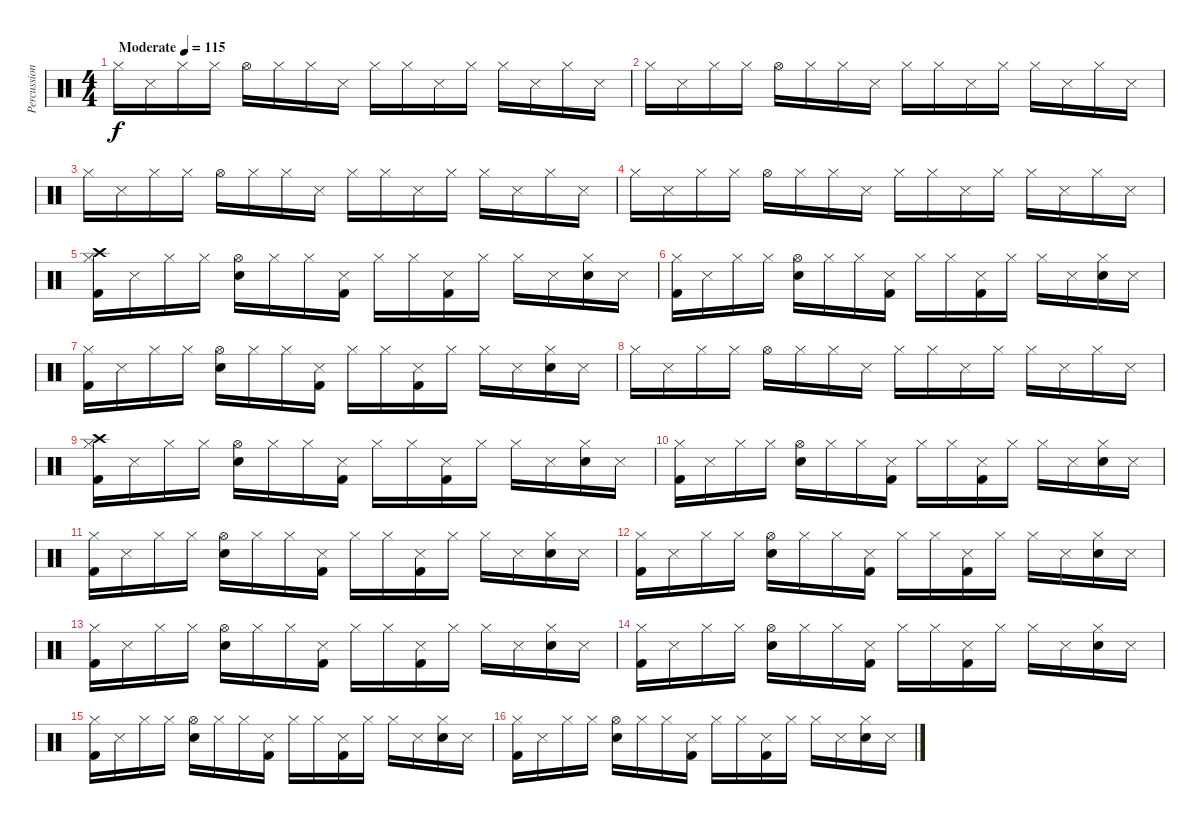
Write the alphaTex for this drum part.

\track ("Percussion (TR808 Kit)" "Percussion") {instrument percussion}
\staff {score}
\articulation defaults
\ts (4 4)
\tempo (115 "Moderate")
\clef neutral
\ks c "Hi-Hat (closed)".16{dy f} "Snare (side stick) 3".16 "Hi-Hat (closed)".16 "Hi-Hat (closed)".16 "Hi-Hat (open)".16 "Hi-Hat (closed)".16 "Hi-Hat (closed)".16 "Snare (side stick) 3".16 "Hi-Hat (closed)".16 "Hi-Hat (closed)".16 "Snare (side stick) 3".16 "Hi-Hat (closed)".16 "Hi-Hat (closed)".16 "Snare (side stick) 3".16 "Hi-Hat (closed)".16 "Snare (side stick) 3".16
|
"Hi-Hat (closed)".16 "Snare (side stick) 3".16 "Hi-Hat (closed)".16 "Hi-Hat (closed)".16 "Hi-Hat (open)".16 "Hi-Hat (closed)".16 "Hi-Hat (closed)".16 "Snare (side stick) 3".16 "Hi-Hat (closed)".16 "Hi-Hat (closed)".16 "Snare (side stick) 3".16 "Hi-Hat (closed)".16 "Hi-Hat (closed)".16 "Snare (side stick) 3".16 "Hi-Hat (closed)".16 "Snare (side stick) 3".16 |
"Hi-Hat (closed)".16 "Snare (side stick) 3".16 "Hi-Hat (closed)".16 "Hi-Hat (closed)".16 "Hi-Hat (open)".16 "Hi-Hat (closed)".16 "Hi-Hat (closed)".16 "Snare (side stick) 3".16 "Hi-Hat (closed)".16 "Hi-Hat (closed)".16 "Snare (side stick) 3".16 "Hi-Hat (closed)".16 "Hi-Hat (closed)".16 "Snare (side stick) 3".16 "Hi-Hat (closed)".16 "Snare (side stick) 3".16 |
"Hi-Hat (closed)".16 "Snare (side stick) 3".16 "Hi-Hat (closed)".16 "Hi-Hat (closed)".16 "Hi-Hat (open)".16 "Hi-Hat (closed)".16 "Hi-Hat (closed)".16 "Snare (side stick) 3".16 "Hi-Hat (closed)".16 "Hi-Hat (closed)".16 "Snare (side stick) 3".16 "Hi-Hat (closed)".16 "Hi-Hat (closed)".16 "Snare (side stick) 3".16 "Hi-Hat (closed)".16 "Snare (side stick) 3".16 |
("Hi-Hat (closed)" "Kick (hit) 2" "Crash high (hit)").16 "Snare (side stick) 3".16 "Hi-Hat (closed)".16 "Hi-Hat (closed)".16 ("Hi-Hat (open)" "Snare (hit) 2").16 "Hi-Hat (closed)".16 "Hi-Hat (closed)".16 ("Snare (side stick) 3" "Kick (hit) 2").16 "Hi-Hat (closed)".16 "Hi-Hat (closed)".16 ("Snare (side stick) 3" "Kick (hit) 2").16 "Hi-Hat (closed)".16 "Hi-Hat (closed)".16 "Snare (side stick) 3".16 ("Hi-Hat (closed)" "Snare (hit) 2").16 "Snare (side stick) 3".16 |
("Hi-Hat (closed)" "Kick (hit) 2").16 "Snare (side stick) 3".16 "Hi-Hat (closed)".16 "Hi-Hat (closed)".16 ("Hi-Hat (open)" "Snare (hit) 2").16 "Hi-Hat (closed)".16 "Hi-Hat (closed)".16 ("Snare (side stick) 3" "Kick (hit) 2").16 "Hi-Hat (closed)".16 "Hi-Hat (closed)".16 ("Snare (side stick) 3" "Kick (hit) 2").16 "Hi-Hat (closed)".16 "Hi-Hat (closed)".16 "Snare (side stick) 3".16 ("Hi-Hat (closed)" "Snare (hit) 2").16 "Snare (side stick) 3".16 |
("Hi-Hat (closed)" "Kick (hit) 2").16 "Snare (side stick) 3".16 "Hi-Hat (closed)".16 "Hi-Hat (closed)".16 ("Hi-Hat (open)" "Snare (hit) 2").16 "Hi-Hat (closed)".16 "Hi-Hat (closed)".16 ("Snare (side stick) 3" "Kick (hit) 2").16 "Hi-Hat (closed)".16 "Hi-Hat (closed)".16 ("Snare (side stick) 3" "Kick (hit) 2").16 "Hi-Hat (closed)".16 "Hi-Hat (closed)".16 "Snare (side stick) 3".16 ("Hi-Hat (closed)" "Snare (hit) 2").16 "Snare (side stick) 3".16 |
"Hi-Hat (closed)".16 "Snare (side stick) 3".16 "Hi-Hat (closed)".16 "Hi-Hat (closed)".16 "Hi-Hat (open)".16 "Hi-Hat (closed)".16 "Hi-Hat (closed)".16 "Snare (side stick) 3".16 "Hi-Hat (closed)".16 "Hi-Hat (closed)".16 "Snare (side stick) 3".16 "Hi-Hat (closed)".16 "Hi-Hat (closed)".16 "Snare (side stick) 3".16 "Hi-Hat (closed)".16 "Snare (side stick) 3".16 |
("Hi-Hat (closed)" "Kick (hit) 2" "Crash high (hit)").16 "Snare (side stick) 3".16 "Hi-Hat (closed)".16 "Hi-Hat (closed)".16 ("Hi-Hat (open)" "Snare (hit) 2").16 "Hi-Hat (closed)".16 "Hi-Hat (closed)".16 ("Snare (side stick) 3" "Kick (hit) 2").16 "Hi-Hat (closed)".16 "Hi-Hat (closed)".16 ("Snare (side stick) 3" "Kick (hit) 2").16 "Hi-Hat (closed)".16 "Hi-Hat (closed)".16 "Snare (side stick) 3".16 ("Hi-Hat (closed)" "Snare (hit) 2").16 "Snare (side stick) 3".16 |
("Hi-Hat (closed)" "Kick (hit) 2").16 "Snare (side stick) 3".16 "Hi-Hat (closed)".16 "Hi-Hat (closed)".16 ("Hi-Hat (open)" "Snare (hit) 2").16 "Hi-Hat (closed)".16 "Hi-Hat (closed)".16 ("Snare (side stick) 3" "Kick (hit) 2").16 "Hi-Hat (closed)".16 "Hi-Hat (closed)".16 ("Snare (side stick) 3" "Kick (hit) 2").16 "Hi-Hat (closed)".16 "Hi-Hat (closed)".16 "Snare (side stick) 3".16 ("Hi-Hat (closed)" "Snare (hit) 2").16 "Snare (side stick) 3".16 |
("Hi-Hat (closed)" "Kick (hit) 2").16 "Snare (side stick) 3".16 "Hi-Hat (closed)".16 "Hi-Hat (closed)".16 ("Hi-Hat (open)" "Snare (hit) 2").16 "Hi-Hat (closed)".16 "Hi-Hat (closed)".16 ("Snare (side stick) 3" "Kick (hit) 2").16 "Hi-Hat (closed)".16 "Hi-Hat (closed)".16 ("Snare (side stick) 3" "Kick (hit) 2").16 "Hi-Hat (closed)".16 "Hi-Hat (closed)".16 "Snare (side stick) 3".16 ("Hi-Hat (closed)" "Snare (hit) 2").16 "Snare (side stick) 3".16 |
("Hi-Hat (closed)" "Kick (hit) 2").16 "Snare (side stick) 3".16 "Hi-Hat (closed)".16 "Hi-Hat (closed)".16 ("Hi-Hat (open)" "Snare (hit) 2").16 "Hi-Hat (closed)".16 "Hi-Hat (closed)".16 ("Snare (side stick) 3" "Kick (hit) 2").16 "Hi-Hat (closed)".16 "Hi-Hat (closed)".16 ("Snare (side stick) 3" "Kick (hit) 2").16 "Hi-Hat (closed)".16 "Hi-Hat (closed)".16 "Snare (side stick) 3".16 ("Hi-Hat (closed)" "Snare (hit) 2").16 "Snare (side stick) 3".16 |
("Hi-Hat (closed)" "Kick (hit) 2").16 "Snare (side stick) 3".16 "Hi-Hat (closed)".16 "Hi-Hat (closed)".16 ("Hi-Hat (open)" "Snare (hit) 2").16 "Hi-Hat (closed)".16 "Hi-Hat (closed)".16 ("Snare (side stick) 3" "Kick (hit) 2").16 "Hi-Hat (closed)".16 "Hi-Hat (closed)".16 ("Snare (side stick) 3" "Kick (hit) 2").16 "Hi-Hat (closed)".16 "Hi-Hat (closed)".16 "Snare (side stick) 3".16 ("Hi-Hat (closed)" "Snare (hit) 2").16 "Snare (side stick) 3".16 |
("Hi-Hat (closed)" "Kick (hit) 2").16 "Snare (side stick) 3".16 "Hi-Hat (closed)".16 "Hi-Hat (closed)".16 ("Hi-Hat (open)" "Snare (hit) 2").16 "Hi-Hat (closed)".16 "Hi-Hat (closed)".16 ("Snare (side stick) 3" "Kick (hit) 2").16 "Hi-Hat (closed)".16 "Hi-Hat (closed)".16 ("Snare (side stick) 3" "Kick (hit) 2").16 "Hi-Hat (closed)".16 "Hi-Hat (closed)".16 "Snare (side stick) 3".16 ("Hi-Hat (closed)" "Snare (hit) 2").16 "Snare (side stick) 3".16 |
("Hi-Hat (closed)" "Kick (hit) 2").16 "Snare (side stick) 3".16 "Hi-Hat (closed)".16 "Hi-Hat (closed)".16 ("Hi-Hat (open)" "Snare (hit) 2").16 "Hi-Hat (closed)".16 "Hi-Hat (closed)".16 ("Snare (side stick) 3" "Kick (hit) 2").16 "Hi-Hat (closed)".16 "Hi-Hat (closed)".16 ("Snare (side stick) 3" "Kick (hit) 2").16 "Hi-Hat (closed)".16 "Hi-Hat (closed)".16 "Snare (side stick) 3".16 ("Hi-Hat (closed)" "Snare (hit) 2").16 "Snare (side stick) 3".16 |
("Hi-Hat (closed)" "Kick (hit) 2").16 "Snare (side stick) 3".16 "Hi-Hat (closed)".16 "Hi-Hat (closed)".16 ("Hi-Hat (open)" "Snare (hit) 2").16 "Hi-Hat (closed)".16 "Hi-Hat (closed)".16 ("Snare (side stick) 3" "Kick (hit) 2").16 "Hi-Hat (closed)".16 "Hi-Hat (closed)".16 ("Snare (side stick) 3" "Kick (hit) 2").16 "Hi-Hat (closed)".16 "Hi-Hat (closed)".16 "Snare (side stick) 3".16 ("Hi-Hat (closed)" "Snare (hit) 2").16 "Snare (side stick) 3".16
